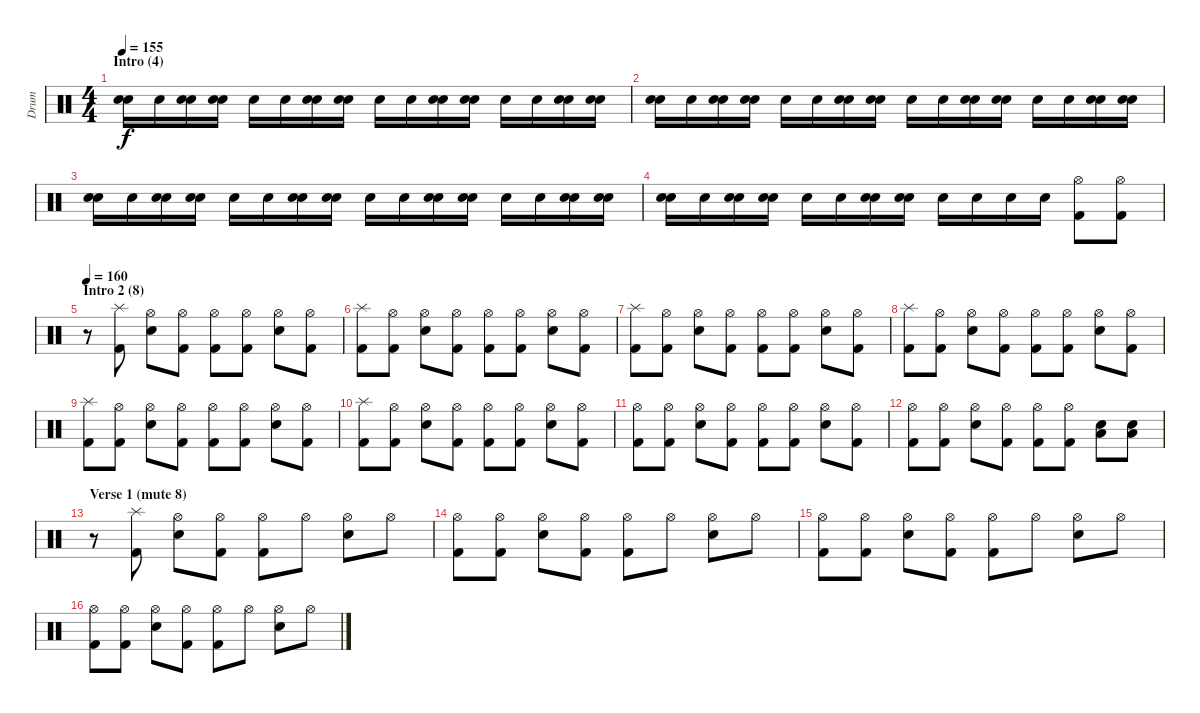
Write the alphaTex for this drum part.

\track ("Drum" "Drum") {instrument percussion}
\staff {score}
\articulation defaults
\ts (4 4)
\section ("" "Intro (4)")
\tempo 155
\clef neutral
\ks c
("Snare (hit) 2" "Snare (hit) 2").16{dy f} "Snare (hit) 2".16 ("Snare (hit) 2" "Snare (hit) 2").16 ("Snare (hit) 2" "Snare (hit) 2").16 "Snare (hit) 2".16 "Snare (hit) 2".16 ("Snare (hit) 2" "Snare (hit) 2").16 ("Snare (hit) 2" "Snare (hit) 2").16 "Snare (hit) 2".16 "Snare (hit) 2".16 ("Snare (hit) 2" "Snare (hit) 2").16 ("Snare (hit) 2" "Snare (hit) 2").16 "Snare (hit) 2".16 "Snare (hit) 2".16 ("Snare (hit) 2" "Snare (hit) 2").16 ("Snare (hit) 2" "Snare (hit) 2").16 |
("Snare (hit) 2" "Snare (hit) 2").16 "Snare (hit) 2".16 ("Snare (hit) 2" "Snare (hit) 2").16 ("Snare (hit) 2" "Snare (hit) 2").16 "Snare (hit) 2".16 "Snare (hit) 2".16 ("Snare (hit) 2" "Snare (hit) 2").16 ("Snare (hit) 2" "Snare (hit) 2").16 "Snare (hit) 2".16 "Snare (hit) 2".16 ("Snare (hit) 2" "Snare (hit) 2").16 ("Snare (hit) 2" "Snare (hit) 2").16 "Snare (hit) 2".16 "Snare (hit) 2".16 ("Snare (hit) 2" "Snare (hit) 2").16 ("Snare (hit) 2" "Snare (hit) 2").16 |
("Snare (hit) 2" "Snare (hit) 2").16 "Snare (hit) 2".16 ("Snare (hit) 2" "Snare (hit) 2").16 ("Snare (hit) 2" "Snare (hit) 2").16 "Snare (hit) 2".16 "Snare (hit) 2".16 ("Snare (hit) 2" "Snare (hit) 2").16 ("Snare (hit) 2" "Snare (hit) 2").16 "Snare (hit) 2".16 "Snare (hit) 2".16 ("Snare (hit) 2" "Snare (hit) 2").16 ("Snare (hit) 2" "Snare (hit) 2").16 "Snare (hit) 2".16 "Snare (hit) 2".16 ("Snare (hit) 2" "Snare (hit) 2").16 ("Snare (hit) 2" "Snare (hit) 2").16 |
("Snare (hit) 2" "Snare (hit) 2").16 "Snare (hit) 2".16 ("Snare (hit) 2" "Snare (hit) 2").16 ("Snare (hit) 2" "Snare (hit) 2").16 "Snare (hit) 2".16 "Snare (hit) 2".16 ("Snare (hit) 2" "Snare (hit) 2").16 ("Snare (hit) 2" "Snare (hit) 2").16 "Snare (hit) 2".16 "Snare (hit) 2".16 "Snare (hit) 2".16 "Snare (hit) 2".16 ("Hi-Hat (open)" "Kick (hit) 2").8 ("Hi-Hat (open)" "Kick (hit) 2").8 |
\section ("" "Intro 2 (8)")
\tempo 160
r.8 ("Splash (hit)" "Kick (hit) 2").8 ("Hi-Hat (open)" "Snare (hit) 2").8 ("Hi-Hat (open)" "Kick (hit) 2").8 ("Hi-Hat (open)" "Kick (hit) 2").8 ("Hi-Hat (open)" "Kick (hit) 2").8 ("Hi-Hat (open)" "Snare (hit) 2").8 ("Hi-Hat (open)" "Kick (hit) 2").8 |
("Splash (hit)" "Kick (hit) 2").8 ("Hi-Hat (open)" "Kick (hit) 2").8 ("Hi-Hat (open)" "Snare (hit) 2").8 ("Hi-Hat (open)" "Kick (hit) 2").8 ("Hi-Hat (open)" "Kick (hit) 2").8 ("Hi-Hat (open)" "Kick (hit) 2").8 ("Hi-Hat (open)" "Snare (hit) 2").8 ("Hi-Hat (open)" "Kick (hit) 2").8 |
("Splash (hit)" "Kick (hit) 2").8 ("Hi-Hat (open)" "Kick (hit) 2").8 ("Hi-Hat (open)" "Snare (hit) 2").8 ("Hi-Hat (open)" "Kick (hit) 2").8 ("Hi-Hat (open)" "Kick (hit) 2").8 ("Hi-Hat (open)" "Kick (hit) 2").8 ("Hi-Hat (open)" "Snare (hit) 2").8 ("Hi-Hat (open)" "Kick (hit) 2").8 |
("Splash (hit)" "Kick (hit) 2").8 ("Hi-Hat (open)" "Kick (hit) 2").8 ("Hi-Hat (open)" "Snare (hit) 2").8 ("Hi-Hat (open)" "Kick (hit) 2").8 ("Hi-Hat (open)" "Kick (hit) 2").8 ("Hi-Hat (open)" "Kick (hit) 2").8 ("Hi-Hat (open)" "Snare (hit) 2").8 ("Hi-Hat (open)" "Kick (hit) 2").8 |
("Splash (hit)" "Kick (hit) 2").8 ("Hi-Hat (open)" "Kick (hit) 2").8 ("Hi-Hat (open)" "Snare (hit) 2").8 ("Hi-Hat (open)" "Kick (hit) 2").8 ("Hi-Hat (open)" "Kick (hit) 2").8 ("Hi-Hat (open)" "Kick (hit) 2").8 ("Hi-Hat (open)" "Snare (hit) 2").8 ("Hi-Hat (open)" "Kick (hit) 2").8 |
("Splash (hit)" "Kick (hit) 2").8 ("Hi-Hat (open)" "Kick (hit) 2").8 ("Hi-Hat (open)" "Snare (hit) 2").8 ("Hi-Hat (open)" "Kick (hit) 2").8 ("Hi-Hat (open)" "Kick (hit) 2").8 ("Hi-Hat (open)" "Kick (hit) 2").8 ("Hi-Hat (open)" "Snare (hit) 2").8 ("Hi-Hat (open)" "Kick (hit) 2").8 |
("Hi-Hat (open)" "Kick (hit) 2").8 ("Hi-Hat (open)" "Kick (hit) 2").8 ("Hi-Hat (open)" "Snare (hit) 2").8 ("Hi-Hat (open)" "Kick (hit) 2").8 ("Hi-Hat (open)" "Kick (hit) 2").8 ("Hi-Hat (open)" "Kick (hit) 2").8 ("Hi-Hat (open)" "Snare (hit) 2").8 ("Hi-Hat (open)" "Kick (hit) 2").8 |
("Hi-Hat (open)" "Kick (hit) 2").8 ("Hi-Hat (open)" "Kick (hit) 2").8 ("Hi-Hat (open)" "Snare (hit) 2").8 ("Hi-Hat (open)" "Kick (hit) 2").8 ("Hi-Hat (open)" "Kick (hit) 2").8 ("Hi-Hat (open)" "Kick (hit) 2").8 ("Low Floor Tom (hit)" "Snare (hit) 2").8 ("Low Floor Tom (hit)" "Snare (hit) 2").8 |
\section ("" "Verse 1 (mute 8)")
r.8 ("Splash (hit)" "Kick (hit) 2").8 ("Hi-Hat (open)" "Snare (hit) 2").8 ("Hi-Hat (open)" "Kick (hit) 2").8 ("Hi-Hat (open)" "Kick (hit) 2").8 "Hi-Hat (open)".8 ("Hi-Hat (open)" "Snare (hit) 2").8 "Hi-Hat (open)".8 |
("Hi-Hat (open)" "Kick (hit) 2").8 ("Hi-Hat (open)" "Kick (hit) 2").8 ("Hi-Hat (open)" "Snare (hit) 2").8 ("Hi-Hat (open)" "Kick (hit) 2").8 ("Hi-Hat (open)" "Kick (hit) 2").8 "Hi-Hat (open)".8 ("Hi-Hat (open)" "Snare (hit) 2").8 "Hi-Hat (open)".8 |
("Hi-Hat (open)" "Kick (hit) 2").8 ("Hi-Hat (open)" "Kick (hit) 2").8 ("Hi-Hat (open)" "Snare (hit) 2").8 ("Hi-Hat (open)" "Kick (hit) 2").8 ("Hi-Hat (open)" "Kick (hit) 2").8 "Hi-Hat (open)".8 ("Hi-Hat (open)" "Snare (hit) 2").8 "Hi-Hat (open)".8 |
("Hi-Hat (open)" "Kick (hit) 2").8 ("Hi-Hat (open)" "Kick (hit) 2").8 ("Hi-Hat (open)" "Snare (hit) 2").8 ("Hi-Hat (open)" "Kick (hit) 2").8 ("Hi-Hat (open)" "Kick (hit) 2").8 "Hi-Hat (open)".8 ("Hi-Hat (open)" "Snare (hit) 2").8 "Hi-Hat (open)".8
